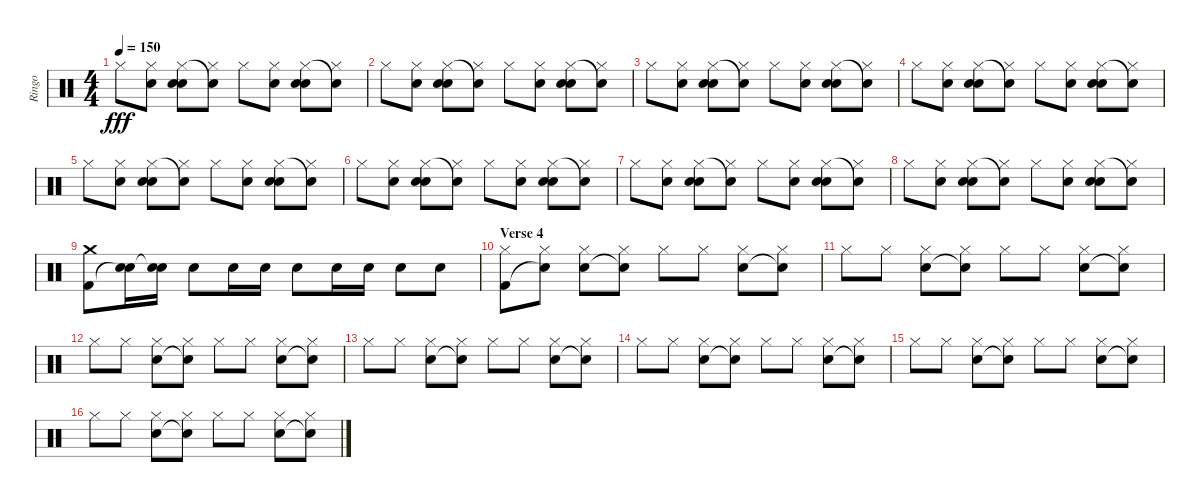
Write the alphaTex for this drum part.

\track ("Ringo" "Ringo") {instrument percussion}
\staff {score}
\articulation defaults
\ts (4 4)
\tempo 150
\clef neutral
\ks c "Hi-Hat (closed)".8{dy fff}
("Hand Clap (hit)" "Hi-Hat (closed)").8 ("Hand Clap (hit)" "Hi-Hat (closed)" "Snare (hit) 2").8 ("Hi-Hat (closed)" "Snare (hit)"{t}).8 "Hi-Hat (closed)".8 ("Hand Clap (hit)" "Hi-Hat (closed)").8 ("Hand Clap (hit)" "Hi-Hat (closed)" "Snare (hit) 2").8 ("Hi-Hat (closed)" "Snare (hit)"{t}).8 |
"Hi-Hat (closed)".8 ("Hand Clap (hit)" "Hi-Hat (closed)").8 ("Hand Clap (hit)" "Hi-Hat (closed)" "Snare (hit) 2").8 ("Hi-Hat (closed)" "Snare (hit)"{t}).8 "Hi-Hat (closed)".8 ("Hand Clap (hit)" "Hi-Hat (closed)").8 ("Hand Clap (hit)" "Hi-Hat (closed)" "Snare (hit) 2").8 ("Hi-Hat (closed)" "Snare (hit)"{t}).8 |
"Hi-Hat (closed)".8 ("Hand Clap (hit)" "Hi-Hat (closed)").8 ("Hand Clap (hit)" "Hi-Hat (closed)" "Snare (hit) 2").8 ("Hi-Hat (closed)" "Snare (hit)"{t}).8 "Hi-Hat (closed)".8 ("Hand Clap (hit)" "Hi-Hat (closed)").8 ("Hand Clap (hit)" "Hi-Hat (closed)" "Snare (hit) 2").8 ("Hi-Hat (closed)" "Snare (hit)"{t}).8 |
"Hi-Hat (closed)".8 ("Hand Clap (hit)" "Hi-Hat (closed)").8 ("Hand Clap (hit)" "Hi-Hat (closed)" "Snare (hit) 2").8 ("Hi-Hat (closed)" "Snare (hit)"{t}).8 "Hi-Hat (closed)".8 ("Hand Clap (hit)" "Hi-Hat (closed)").8 ("Hand Clap (hit)" "Hi-Hat (closed)" "Snare (hit) 2").8 ("Hi-Hat (closed)" "Snare (hit)"{t}).8 |
"Hi-Hat (closed)".8 ("Hand Clap (hit)" "Hi-Hat (closed)").8 ("Hand Clap (hit)" "Hi-Hat (closed)" "Snare (hit) 2").8 ("Hi-Hat (closed)" "Snare (hit)"{t}).8 "Hi-Hat (closed)".8 ("Hand Clap (hit)" "Hi-Hat (closed)").8 ("Hand Clap (hit)" "Hi-Hat (closed)" "Snare (hit) 2").8 ("Hi-Hat (closed)" "Snare (hit)"{t}).8 |
"Hi-Hat (closed)".8 ("Hand Clap (hit)" "Hi-Hat (closed)").8 ("Hand Clap (hit)" "Hi-Hat (closed)" "Snare (hit) 2").8 ("Hi-Hat (closed)" "Snare (hit)"{t}).8 "Hi-Hat (closed)".8 ("Hand Clap (hit)" "Hi-Hat (closed)").8 ("Hand Clap (hit)" "Hi-Hat (closed)" "Snare (hit) 2").8 ("Hi-Hat (closed)" "Snare (hit)"{t}).8 |
"Hi-Hat (closed)".8 ("Hand Clap (hit)" "Hi-Hat (closed)").8 ("Hand Clap (hit)" "Hi-Hat (closed)" "Snare (hit) 2").8 ("Hi-Hat (closed)" "Snare (hit)"{t}).8 "Hi-Hat (closed)".8 ("Hand Clap (hit)" "Hi-Hat (closed)").8 ("Hand Clap (hit)" "Hi-Hat (closed)" "Snare (hit) 2").8 ("Hi-Hat (closed)" "Snare (hit)"{t}).8 |
"Hi-Hat (closed)".8 ("Hand Clap (hit)" "Hi-Hat (closed)").8 ("Hand Clap (hit)" "Hi-Hat (closed)" "Snare (hit) 2").8 ("Hi-Hat (closed)" "Snare (hit)"{t}).8 "Hi-Hat (closed)".8 ("Hand Clap (hit)" "Hi-Hat (closed)").8 ("Hand Clap (hit)" "Hi-Hat (closed)" "Snare (hit) 2").8 ("Hi-Hat (closed)" "Snare (hit)"{t}).8 |
("Crash medium (hit)" "Kick (hit) 2").8 ("Snare (hit) 2" "Snare (hit)"{t}).16 ("Snare (hit) 2" "Snare (hit)"{t}).16 "Snare (hit) 2".8 "Snare (hit) 2".16 "Snare (hit) 2".16 "Snare (hit) 2".8 "Snare (hit) 2".16 "Snare (hit) 2".16 "Snare (hit) 2".8 "Snare (hit) 2".8 |
\section ("" "Verse 4")
("Hi-Hat (closed)" "Kick (hit) 2").8 ("Hi-Hat (closed)" "Snare (hit)"{t}).8 ("Hi-Hat (closed)" "Snare (hit) 2").8 ("Hi-Hat (closed)" "Snare (hit)"{t}).8 "Hi-Hat (closed)".8 "Hi-Hat (closed)".8 ("Hi-Hat (closed)" "Snare (hit) 2").8 ("Hi-Hat (closed)" "Snare (hit)"{t}).8 |
"Hi-Hat (closed)".8 "Hi-Hat (closed)".8 ("Hi-Hat (closed)" "Snare (hit) 2").8 ("Hi-Hat (closed)" "Snare (hit)"{t}).8 "Hi-Hat (closed)".8 "Hi-Hat (closed)".8 ("Hi-Hat (closed)" "Snare (hit) 2").8 ("Hi-Hat (closed)" "Snare (hit)"{t}).8 |
"Hi-Hat (closed)".8 "Hi-Hat (closed)".8 ("Hi-Hat (closed)" "Snare (hit) 2").8 ("Hi-Hat (closed)" "Snare (hit)"{t}).8 "Hi-Hat (closed)".8 "Hi-Hat (closed)".8 ("Hi-Hat (closed)" "Snare (hit) 2").8 ("Hi-Hat (closed)" "Snare (hit)"{t}).8 |
"Hi-Hat (closed)".8 "Hi-Hat (closed)".8 ("Hi-Hat (closed)" "Snare (hit) 2").8 ("Hi-Hat (closed)" "Snare (hit)"{t}).8 "Hi-Hat (closed)".8 "Hi-Hat (closed)".8 ("Hi-Hat (closed)" "Snare (hit) 2").8 ("Hi-Hat (closed)" "Snare (hit)"{t}).8 |
"Hi-Hat (closed)".8 "Hi-Hat (closed)".8 ("Hi-Hat (closed)" "Snare (hit) 2").8 ("Hi-Hat (closed)" "Snare (hit)"{t}).8 "Hi-Hat (closed)".8 "Hi-Hat (closed)".8 ("Hi-Hat (closed)" "Snare (hit) 2").8 ("Hi-Hat (closed)" "Snare (hit)"{t}).8 |
"Hi-Hat (closed)".8 "Hi-Hat (closed)".8 ("Hi-Hat (closed)" "Snare (hit) 2").8 ("Hi-Hat (closed)" "Snare (hit)"{t}).8 "Hi-Hat (closed)".8 "Hi-Hat (closed)".8 ("Hi-Hat (closed)" "Snare (hit) 2").8 ("Hi-Hat (closed)" "Snare (hit)"{t}).8 |
"Hi-Hat (closed)".8 "Hi-Hat (closed)".8 ("Hi-Hat (closed)" "Snare (hit) 2").8 ("Hi-Hat (closed)" "Snare (hit)"{t}).8 "Hi-Hat (closed)".8 "Hi-Hat (closed)".8 ("Hi-Hat (closed)" "Snare (hit) 2").8 ("Hi-Hat (closed)" "Snare (hit)"{t}).8
